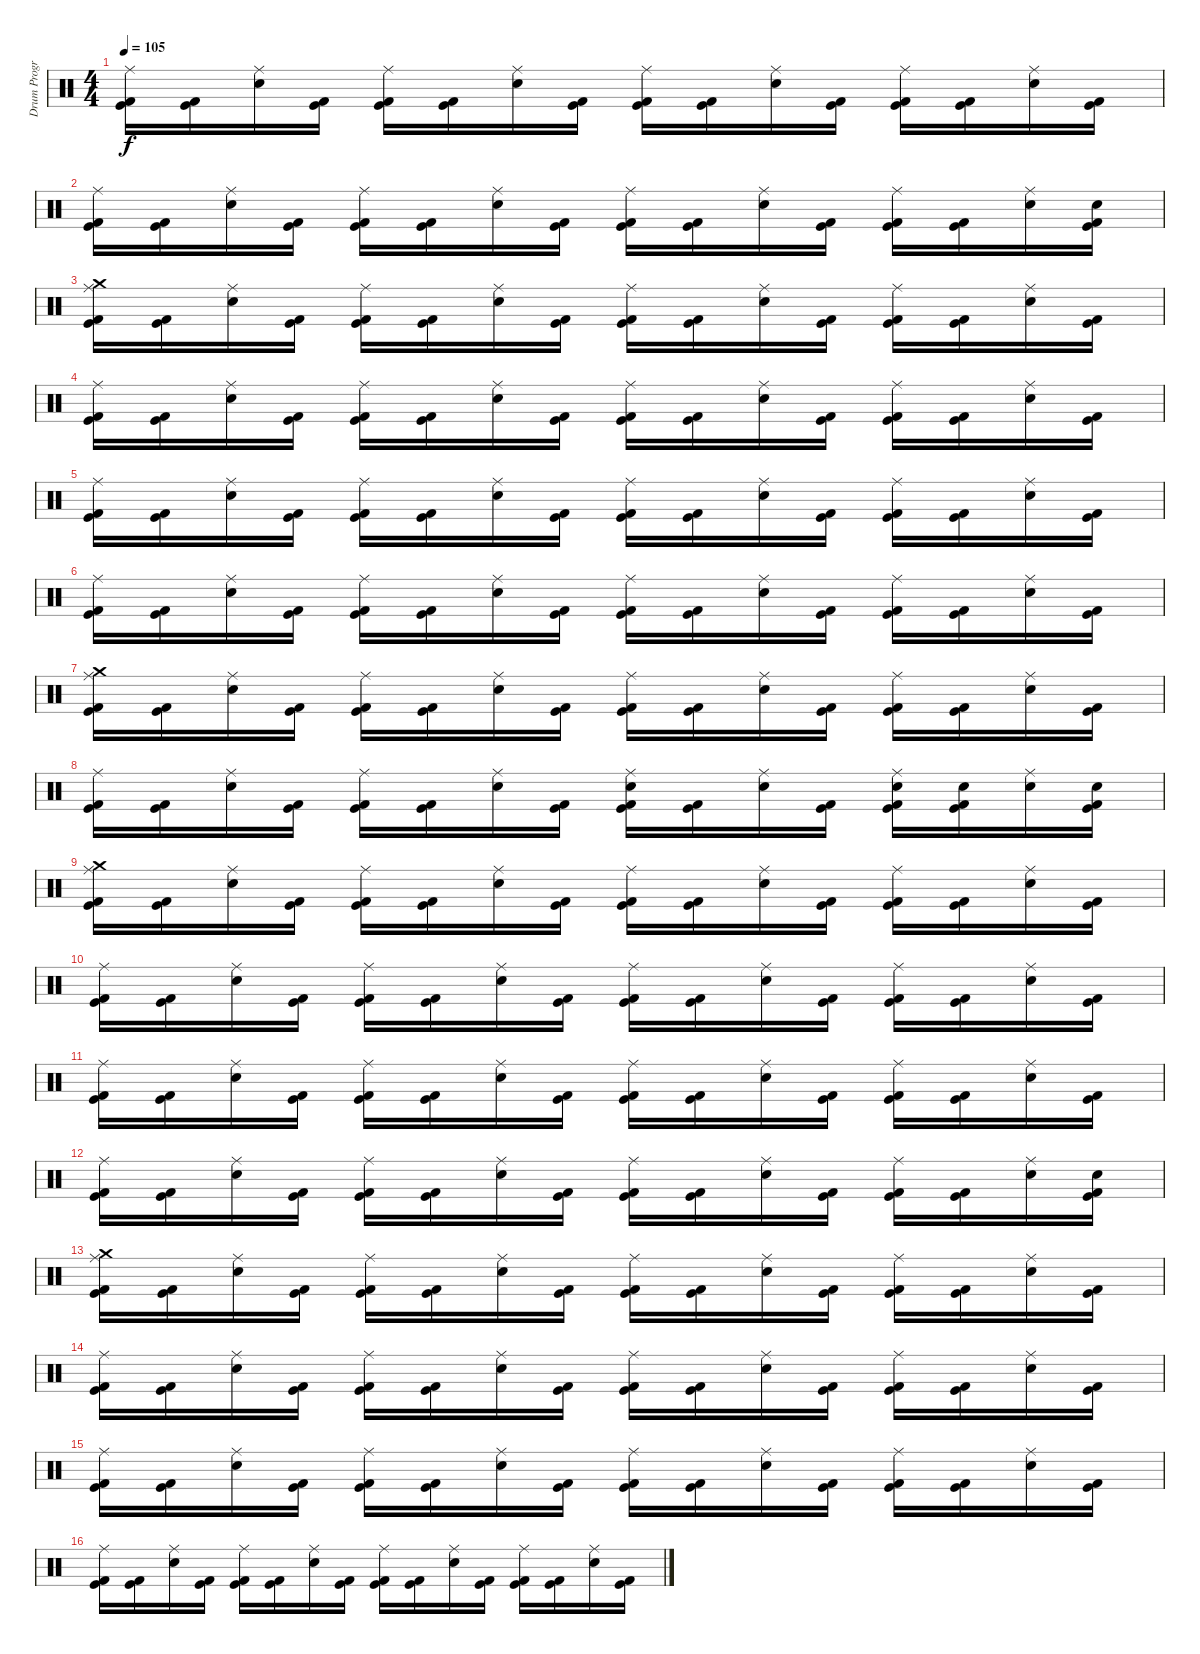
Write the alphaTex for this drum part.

\track ("Drum Program - BG" "Drum Progr") {instrument percussion}
\staff {score}
\articulation defaults
\ts (4 4)
\tempo 105
\clef neutral
\ks c
("Kick (hit)" "Kick (hit) 2" "Ride (middle)").16{dy f} ("Kick (hit)" "Kick (hit) 2").16 ("Snare (hit) 2" "Ride (middle)").16 ("Kick (hit)" "Kick (hit) 2").16 ("Kick (hit)" "Kick (hit) 2" "Ride (middle)").16 ("Kick (hit)" "Kick (hit) 2").16 ("Snare (hit) 2" "Ride (middle)").16 ("Kick (hit)" "Kick (hit) 2").16 ("Kick (hit)" "Kick (hit) 2" "Ride (middle)").16 ("Kick (hit)" "Kick (hit) 2").16 ("Snare (hit) 2" "Ride (middle)").16 ("Kick (hit)" "Kick (hit) 2").16 ("Kick (hit)" "Kick (hit) 2" "Ride (middle)").16 ("Kick (hit)" "Kick (hit) 2").16 ("Snare (hit) 2" "Ride (middle)").16 ("Kick (hit)" "Kick (hit) 2").16 |
("Kick (hit)" "Kick (hit) 2" "Ride (middle)").16 ("Kick (hit)" "Kick (hit) 2").16 ("Snare (hit) 2" "Ride (middle)").16 ("Kick (hit)" "Kick (hit) 2").16 ("Kick (hit)" "Kick (hit) 2" "Ride (middle)").16 ("Kick (hit)" "Kick (hit) 2").16 ("Snare (hit) 2" "Ride (middle)").16 ("Kick (hit)" "Kick (hit) 2").16 ("Kick (hit)" "Kick (hit) 2" "Ride (middle)").16 ("Kick (hit)" "Kick (hit) 2").16 ("Snare (hit) 2" "Ride (middle)").16 ("Kick (hit)" "Kick (hit) 2").16 ("Kick (hit)" "Kick (hit) 2" "Ride (middle)").16 ("Kick (hit)" "Kick (hit) 2").16 ("Snare (hit) 2" "Ride (middle)").16 ("Kick (hit)" "Kick (hit) 2" "Snare (hit) 2").16 |
("Kick (hit)" "Kick (hit) 2" "Crash medium (hit)" "Ride (middle)").16 ("Kick (hit)" "Kick (hit) 2").16 ("Snare (hit) 2" "Ride (middle)").16 ("Kick (hit)" "Kick (hit) 2").16 ("Kick (hit)" "Kick (hit) 2" "Ride (middle)").16 ("Kick (hit)" "Kick (hit) 2").16 ("Snare (hit) 2" "Ride (middle)").16 ("Kick (hit)" "Kick (hit) 2").16 ("Kick (hit)" "Kick (hit) 2" "Ride (middle)").16 ("Kick (hit)" "Kick (hit) 2").16 ("Snare (hit) 2" "Ride (middle)").16 ("Kick (hit)" "Kick (hit) 2").16 ("Kick (hit)" "Kick (hit) 2" "Ride (middle)").16 ("Kick (hit)" "Kick (hit) 2").16 ("Snare (hit) 2" "Ride (middle)").16 ("Kick (hit)" "Kick (hit) 2").16 |
("Kick (hit)" "Kick (hit) 2" "Ride (middle)").16 ("Kick (hit)" "Kick (hit) 2").16 ("Snare (hit) 2" "Ride (middle)").16 ("Kick (hit)" "Kick (hit) 2").16 ("Kick (hit)" "Kick (hit) 2" "Ride (middle)").16 ("Kick (hit)" "Kick (hit) 2").16 ("Snare (hit) 2" "Ride (middle)").16 ("Kick (hit)" "Kick (hit) 2").16 ("Kick (hit)" "Kick (hit) 2" "Ride (middle)").16 ("Kick (hit)" "Kick (hit) 2").16 ("Snare (hit) 2" "Ride (middle)").16 ("Kick (hit)" "Kick (hit) 2").16 ("Kick (hit)" "Kick (hit) 2" "Ride (middle)").16 ("Kick (hit)" "Kick (hit) 2").16 ("Snare (hit) 2" "Ride (middle)").16 ("Kick (hit)" "Kick (hit) 2").16 |
("Kick (hit)" "Kick (hit) 2" "Ride (middle)").16 ("Kick (hit)" "Kick (hit) 2").16 ("Snare (hit) 2" "Ride (middle)").16 ("Kick (hit)" "Kick (hit) 2").16 ("Kick (hit)" "Kick (hit) 2" "Ride (middle)").16 ("Kick (hit)" "Kick (hit) 2").16 ("Snare (hit) 2" "Ride (middle)").16 ("Kick (hit)" "Kick (hit) 2").16 ("Kick (hit)" "Kick (hit) 2" "Ride (middle)").16 ("Kick (hit)" "Kick (hit) 2").16 ("Snare (hit) 2" "Ride (middle)").16 ("Kick (hit)" "Kick (hit) 2").16 ("Kick (hit)" "Kick (hit) 2" "Ride (middle)").16 ("Kick (hit)" "Kick (hit) 2").16 ("Snare (hit) 2" "Ride (middle)").16 ("Kick (hit)" "Kick (hit) 2").16 |
("Kick (hit)" "Kick (hit) 2" "Ride (middle)").16 ("Kick (hit)" "Kick (hit) 2").16 ("Snare (hit) 2" "Ride (middle)").16 ("Kick (hit)" "Kick (hit) 2").16 ("Kick (hit)" "Kick (hit) 2" "Ride (middle)").16 ("Kick (hit)" "Kick (hit) 2").16 ("Snare (hit) 2" "Ride (middle)").16 ("Kick (hit)" "Kick (hit) 2").16 ("Kick (hit)" "Kick (hit) 2" "Ride (middle)").16 ("Kick (hit)" "Kick (hit) 2").16 ("Snare (hit) 2" "Ride (middle)").16 ("Kick (hit)" "Kick (hit) 2").16 ("Kick (hit)" "Kick (hit) 2" "Ride (middle)").16 ("Kick (hit)" "Kick (hit) 2").16 ("Snare (hit) 2" "Ride (middle)").16 ("Kick (hit)" "Kick (hit) 2").16 |
("Kick (hit)" "Kick (hit) 2" "Crash medium (hit)" "Ride (middle)").16 ("Kick (hit)" "Kick (hit) 2").16 ("Snare (hit) 2" "Ride (middle)").16 ("Kick (hit)" "Kick (hit) 2").16 ("Kick (hit)" "Kick (hit) 2" "Ride (middle)").16 ("Kick (hit)" "Kick (hit) 2").16 ("Snare (hit) 2" "Ride (middle)").16 ("Kick (hit)" "Kick (hit) 2").16 ("Kick (hit)" "Kick (hit) 2" "Ride (middle)").16 ("Kick (hit)" "Kick (hit) 2").16 ("Snare (hit) 2" "Ride (middle)").16 ("Kick (hit)" "Kick (hit) 2").16 ("Kick (hit)" "Kick (hit) 2" "Ride (middle)").16 ("Kick (hit)" "Kick (hit) 2").16 ("Snare (hit) 2" "Ride (middle)").16 ("Kick (hit)" "Kick (hit) 2").16 |
("Kick (hit)" "Kick (hit) 2" "Ride (middle)").16 ("Kick (hit)" "Kick (hit) 2").16 ("Snare (hit) 2" "Ride (middle)").16 ("Kick (hit)" "Kick (hit) 2").16 ("Kick (hit)" "Kick (hit) 2" "Ride (middle)").16 ("Kick (hit)" "Kick (hit) 2").16 ("Snare (hit) 2" "Ride (middle)").16 ("Kick (hit)" "Kick (hit) 2").16 ("Kick (hit)" "Kick (hit) 2" "Electric Snare (hit)" "Ride (middle)").16 ("Kick (hit)" "Kick (hit) 2").16 ("Electric Snare (hit)" "Ride (middle)").16 ("Kick (hit)" "Kick (hit) 2").16 ("Kick (hit)" "Kick (hit) 2" "Electric Snare (hit)" "Ride (middle)").16 ("Kick (hit)" "Kick (hit) 2" "Electric Snare (hit)").16 ("Electric Snare (hit)" "Ride (middle)").16 ("Kick (hit)" "Kick (hit) 2" "Electric Snare (hit)").16 |
("Kick (hit)" "Kick (hit) 2" "Crash medium (hit)" "Ride (middle)").16 ("Kick (hit)" "Kick (hit) 2").16 ("Snare (hit) 2" "Ride (middle)").16 ("Kick (hit)" "Kick (hit) 2").16 ("Kick (hit)" "Kick (hit) 2" "Ride (middle)").16 ("Kick (hit)" "Kick (hit) 2").16 ("Snare (hit) 2" "Ride (middle)").16 ("Kick (hit)" "Kick (hit) 2").16 ("Kick (hit)" "Kick (hit) 2" "Ride (middle)").16 ("Kick (hit)" "Kick (hit) 2").16 ("Snare (hit) 2" "Ride (middle)").16 ("Kick (hit)" "Kick (hit) 2").16 ("Kick (hit)" "Kick (hit) 2" "Ride (middle)").16 ("Kick (hit)" "Kick (hit) 2").16 ("Snare (hit) 2" "Ride (middle)").16 ("Kick (hit)" "Kick (hit) 2").16 |
("Kick (hit)" "Kick (hit) 2" "Ride (middle)").16 ("Kick (hit)" "Kick (hit) 2").16 ("Snare (hit) 2" "Ride (middle)").16 ("Kick (hit)" "Kick (hit) 2").16 ("Kick (hit)" "Kick (hit) 2" "Ride (middle)").16 ("Kick (hit)" "Kick (hit) 2").16 ("Snare (hit) 2" "Ride (middle)").16 ("Kick (hit)" "Kick (hit) 2").16 ("Kick (hit)" "Kick (hit) 2" "Ride (middle)").16 ("Kick (hit)" "Kick (hit) 2").16 ("Snare (hit) 2" "Ride (middle)").16 ("Kick (hit)" "Kick (hit) 2").16 ("Kick (hit)" "Kick (hit) 2" "Ride (middle)").16 ("Kick (hit)" "Kick (hit) 2").16 ("Snare (hit) 2" "Ride (middle)").16 ("Kick (hit)" "Kick (hit) 2").16 |
("Kick (hit)" "Kick (hit) 2" "Ride (middle)").16 ("Kick (hit)" "Kick (hit) 2").16 ("Snare (hit) 2" "Ride (middle)").16 ("Kick (hit)" "Kick (hit) 2").16 ("Kick (hit)" "Kick (hit) 2" "Ride (middle)").16 ("Kick (hit)" "Kick (hit) 2").16 ("Snare (hit) 2" "Ride (middle)").16 ("Kick (hit)" "Kick (hit) 2").16 ("Kick (hit)" "Kick (hit) 2" "Ride (middle)").16 ("Kick (hit)" "Kick (hit) 2").16 ("Snare (hit) 2" "Ride (middle)").16 ("Kick (hit)" "Kick (hit) 2").16 ("Kick (hit)" "Kick (hit) 2" "Ride (middle)").16 ("Kick (hit)" "Kick (hit) 2").16 ("Snare (hit) 2" "Ride (middle)").16 ("Kick (hit)" "Kick (hit) 2").16 |
("Kick (hit)" "Kick (hit) 2" "Ride (middle)").16 ("Kick (hit)" "Kick (hit) 2").16 ("Snare (hit) 2" "Ride (middle)").16 ("Kick (hit)" "Kick (hit) 2").16 ("Kick (hit)" "Kick (hit) 2" "Ride (middle)").16 ("Kick (hit)" "Kick (hit) 2").16 ("Snare (hit) 2" "Ride (middle)").16 ("Kick (hit)" "Kick (hit) 2").16 ("Kick (hit)" "Kick (hit) 2" "Ride (middle)").16 ("Kick (hit)" "Kick (hit) 2").16 ("Snare (hit) 2" "Ride (middle)").16 ("Kick (hit)" "Kick (hit) 2").16 ("Kick (hit)" "Kick (hit) 2" "Ride (middle)").16 ("Kick (hit)" "Kick (hit) 2").16 ("Snare (hit) 2" "Ride (middle)").16 ("Kick (hit)" "Kick (hit) 2" "Snare (hit) 2").16 |
("Kick (hit)" "Kick (hit) 2" "Crash medium (hit)" "Ride (middle)").16 ("Kick (hit)" "Kick (hit) 2").16 ("Snare (hit) 2" "Ride (middle)").16 ("Kick (hit)" "Kick (hit) 2").16 ("Kick (hit)" "Kick (hit) 2" "Ride (middle)").16 ("Kick (hit)" "Kick (hit) 2").16 ("Snare (hit) 2" "Ride (middle)").16 ("Kick (hit)" "Kick (hit) 2").16 ("Kick (hit)" "Kick (hit) 2" "Ride (middle)").16 ("Kick (hit)" "Kick (hit) 2").16 ("Snare (hit) 2" "Ride (middle)").16 ("Kick (hit)" "Kick (hit) 2").16 ("Kick (hit)" "Kick (hit) 2" "Ride (middle)").16 ("Kick (hit)" "Kick (hit) 2").16 ("Snare (hit) 2" "Ride (middle)").16 ("Kick (hit)" "Kick (hit) 2").16 |
("Kick (hit)" "Kick (hit) 2" "Ride (middle)").16 ("Kick (hit)" "Kick (hit) 2").16 ("Snare (hit) 2" "Ride (middle)").16 ("Kick (hit)" "Kick (hit) 2").16 ("Kick (hit)" "Kick (hit) 2" "Ride (middle)").16 ("Kick (hit)" "Kick (hit) 2").16 ("Snare (hit) 2" "Ride (middle)").16 ("Kick (hit)" "Kick (hit) 2").16 ("Kick (hit)" "Kick (hit) 2" "Ride (middle)").16 ("Kick (hit)" "Kick (hit) 2").16 ("Snare (hit) 2" "Ride (middle)").16 ("Kick (hit)" "Kick (hit) 2").16 ("Kick (hit)" "Kick (hit) 2" "Ride (middle)").16 ("Kick (hit)" "Kick (hit) 2").16 ("Snare (hit) 2" "Ride (middle)").16 ("Kick (hit)" "Kick (hit) 2").16 |
("Kick (hit)" "Kick (hit) 2" "Ride (middle)").16 ("Kick (hit)" "Kick (hit) 2").16 ("Snare (hit) 2" "Ride (middle)").16 ("Kick (hit)" "Kick (hit) 2").16 ("Kick (hit)" "Kick (hit) 2" "Ride (middle)").16 ("Kick (hit)" "Kick (hit) 2").16 ("Snare (hit) 2" "Ride (middle)").16 ("Kick (hit)" "Kick (hit) 2").16 ("Kick (hit)" "Kick (hit) 2" "Ride (middle)").16 ("Kick (hit)" "Kick (hit) 2").16 ("Snare (hit) 2" "Ride (middle)").16 ("Kick (hit)" "Kick (hit) 2").16 ("Kick (hit)" "Kick (hit) 2" "Ride (middle)").16 ("Kick (hit)" "Kick (hit) 2").16 ("Snare (hit) 2" "Ride (middle)").16 ("Kick (hit)" "Kick (hit) 2").16 |
("Kick (hit)" "Kick (hit) 2" "Ride (middle)").16 ("Kick (hit)" "Kick (hit) 2").16 ("Snare (hit) 2" "Ride (middle)").16 ("Kick (hit)" "Kick (hit) 2").16 ("Kick (hit)" "Kick (hit) 2" "Ride (middle)").16 ("Kick (hit)" "Kick (hit) 2").16 ("Snare (hit) 2" "Ride (middle)").16 ("Kick (hit)" "Kick (hit) 2").16 ("Kick (hit)" "Kick (hit) 2" "Ride (middle)").16 ("Kick (hit)" "Kick (hit) 2").16 ("Snare (hit) 2" "Ride (middle)").16 ("Kick (hit)" "Kick (hit) 2").16 ("Kick (hit)" "Kick (hit) 2" "Ride (middle)").16 ("Kick (hit)" "Kick (hit) 2").16 ("Snare (hit) 2" "Ride (middle)").16 ("Kick (hit)" "Kick (hit) 2").16
